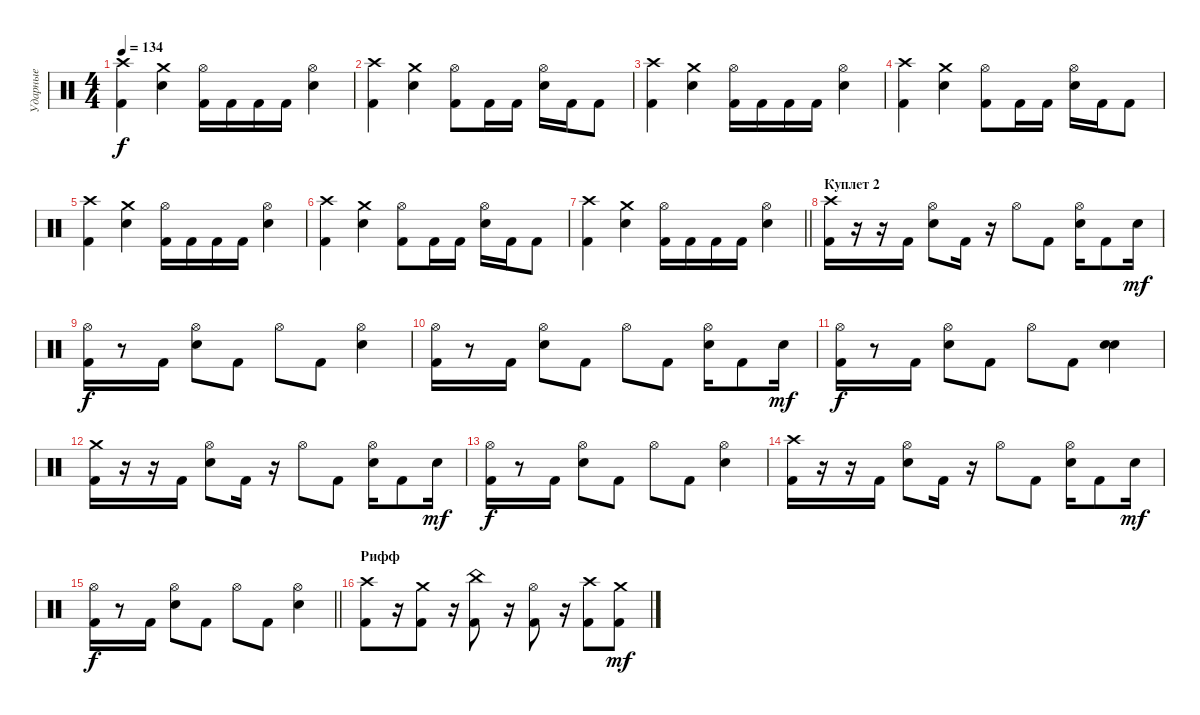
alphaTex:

\track ("Ударные" "Ударные") {instrument percussion}
\staff {score}
\articulation defaults
\ts (4 4)
\tempo 134
\clef neutral
\ks c
("Crash high (hit)" "Kick (hit) 2").4{dy f} ("Crash medium (hit)" "Snare (hit) 2").4 ("Hi-Hat (open)" "Kick (hit) 2").16 "Kick (hit) 2".16 "Kick (hit) 2".16 "Kick (hit) 2".16 ("Hi-Hat (open)" "Snare (hit) 2").4 |
("Crash high (hit)" "Kick (hit) 2").4 ("Crash medium (hit)" "Snare (hit) 2").4 ("Hi-Hat (open)" "Kick (hit) 2").8 "Kick (hit) 2".16 "Kick (hit) 2".16 ("Hi-Hat (open)" "Snare (hit) 2").16 "Kick (hit) 2".16 "Kick (hit) 2".8 |
("Crash high (hit)" "Kick (hit) 2").4 ("Crash medium (hit)" "Snare (hit) 2").4 ("Hi-Hat (open)" "Kick (hit) 2").16 "Kick (hit) 2".16 "Kick (hit) 2".16 "Kick (hit) 2".16 ("Hi-Hat (open)" "Snare (hit) 2").4 |
("Crash high (hit)" "Kick (hit) 2").4 ("Crash medium (hit)" "Snare (hit) 2").4 ("Hi-Hat (open)" "Kick (hit) 2").8 "Kick (hit) 2".16 "Kick (hit) 2".16 ("Hi-Hat (open)" "Snare (hit) 2").16 "Kick (hit) 2".16 "Kick (hit) 2".8 |
("Crash high (hit)" "Kick (hit) 2").4 ("Crash medium (hit)" "Snare (hit) 2").4 ("Hi-Hat (open)" "Kick (hit) 2").16 "Kick (hit) 2".16 "Kick (hit) 2".16 "Kick (hit) 2".16 ("Hi-Hat (open)" "Snare (hit) 2").4 |
("Crash high (hit)" "Kick (hit) 2").4 ("Crash medium (hit)" "Snare (hit) 2").4 ("Hi-Hat (open)" "Kick (hit) 2").8 "Kick (hit) 2".16 "Kick (hit) 2".16 ("Hi-Hat (open)" "Snare (hit) 2").16 "Kick (hit) 2".16 "Kick (hit) 2".8 |
\barLineRight lightlight
("Crash high (hit)" "Kick (hit) 2").4 ("Crash medium (hit)" "Snare (hit) 2").4 ("Hi-Hat (open)" "Kick (hit) 2").16 "Kick (hit) 2".16 "Kick (hit) 2".16 "Kick (hit) 2".16 ("Hi-Hat (open)" "Snare (hit) 2").4 |
\section ("" "Куплет 2")
("Crash high (hit)" "Kick (hit) 2").16 r.16 r.16 "Kick (hit) 2".16 ("Hi-Hat (open)" "Snare (hit) 2").8 "Kick (hit) 2".16 r.16 "Hi-Hat (open)".8 "Kick (hit) 2".8 ("Hi-Hat (open)" "Snare (hit) 2").16 "Kick (hit) 2".8 "Snare (hit) 2".16{dy mf} |
("Hi-Hat (open)" "Kick (hit) 2").16{dy f} r.8 "Kick (hit) 2".16 ("Hi-Hat (open)" "Snare (hit) 2").8 "Kick (hit) 2".8 "Hi-Hat (open)".8 "Kick (hit) 2".8 ("Hi-Hat (open)" "Snare (hit) 2").4 |
("Hi-Hat (open)" "Kick (hit) 2").16 r.8 "Kick (hit) 2".16 ("Hi-Hat (open)" "Snare (hit) 2").8 "Kick (hit) 2".8 "Hi-Hat (open)".8 "Kick (hit) 2".8 ("Hi-Hat (open)" "Snare (hit) 2").16 "Kick (hit) 2".8 "Snare (hit) 2".16{dy mf} |
("Hi-Hat (open)" "Kick (hit) 2").16{dy f} r.8 "Kick (hit) 2".16 ("Hi-Hat (open)" "Snare (hit) 2").8 "Kick (hit) 2".8 "Hi-Hat (open)".8 "Kick (hit) 2".8 ("Snare (hit) 2" "Snare (hit) 2").4 |
("Crash medium (hit)" "Kick (hit) 2").16 r.16 r.16 "Kick (hit) 2".16 ("Hi-Hat (open)" "Snare (hit) 2").8 "Kick (hit) 2".16 r.16 "Hi-Hat (open)".8 "Kick (hit) 2".8 ("Hi-Hat (open)" "Snare (hit) 2").16 "Kick (hit) 2".8 "Snare (hit) 2".16{dy mf} |
("Hi-Hat (open)" "Kick (hit) 2").16{dy f} r.8 "Kick (hit) 2".16 ("Hi-Hat (open)" "Snare (hit) 2").8 "Kick (hit) 2".8 "Hi-Hat (open)".8 "Kick (hit) 2".8 ("Hi-Hat (open)" "Snare (hit) 2").4 |
("Crash high (hit)" "Kick (hit) 2").16 r.16 r.16 "Kick (hit) 2".16 ("Hi-Hat (open)" "Snare (hit) 2").8 "Kick (hit) 2".16 r.16 "Hi-Hat (open)".8 "Kick (hit) 2".8 ("Hi-Hat (open)" "Snare (hit) 2").16 "Kick (hit) 2".8 "Snare (hit) 2".16{dy mf} |
\barLineRight lightlight
("Hi-Hat (open)" "Kick (hit) 2").16{dy f} r.8 "Kick (hit) 2".16 ("Hi-Hat (open)" "Snare (hit) 2").8 "Kick (hit) 2".8 "Hi-Hat (open)".8 "Kick (hit) 2".8 ("Hi-Hat (open)" "Snare (hit) 2").4 |
\section ("" "Рифф")
("Crash high (hit)" "Kick (hit) 2").8 r.16 ("Crash medium (hit)" "Kick (hit) 2").8 r.16 ("China (hit)" "Kick (hit) 2").8 r.16 ("Hi-Hat (open)" "Kick (hit) 2").8 r.16 ("Crash high (hit)" "Kick (hit) 2").8 ("Crash medium (hit)" "Kick (hit) 2").8{dy mf}
